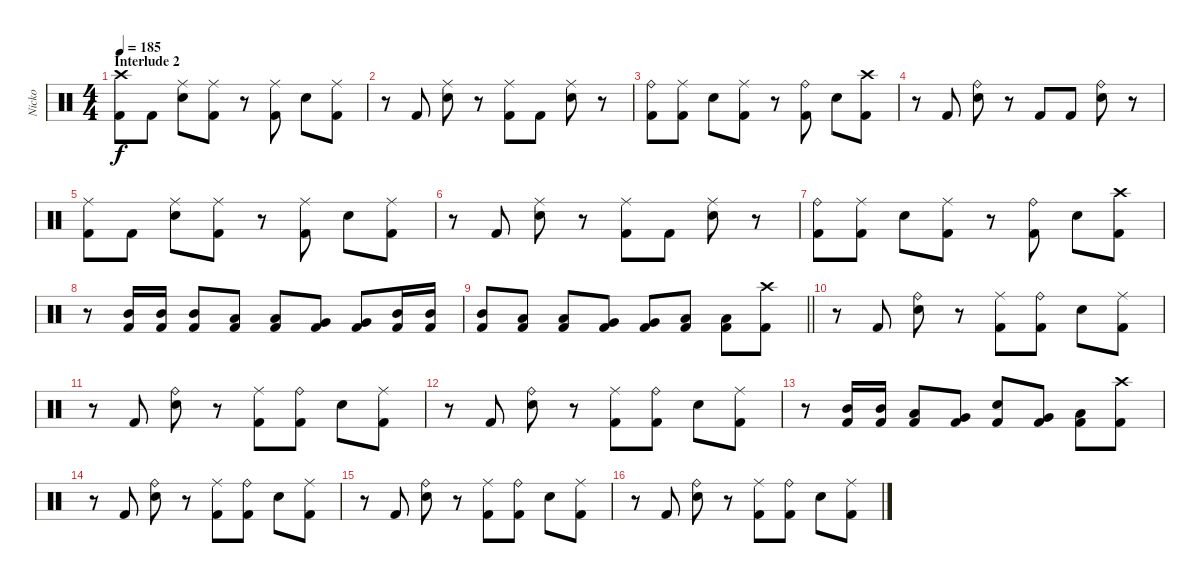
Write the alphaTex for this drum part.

\track ("Nicko" "Nicko") {instrument percussion}
\staff {score}
\articulation defaults
\ts (4 4)
\section ("" "Interlude 2")
\tempo 185
\clef neutral
\ks c
("Crash high (hit)" "Kick (hit) 2").8{dy f} "Kick (hit) 2".8 ("Ride (middle)" "Snare (hit) 2").8 ("Ride (middle)" "Kick (hit) 2").8 r.8 ("Ride (middle)" "Kick (hit) 2").8 "Snare (hit) 2".8 ("Ride (middle)" "Kick (hit) 2").8 |
r.8 "Kick (hit) 2".8 ("Ride (middle)" "Snare (hit) 2").8 r.8 ("Ride (middle)" "Kick (hit) 2").8 "Kick (hit) 2".8 ("Ride (middle)" "Snare (hit) 2").8 r.8 |
("Ride (bell)" "Kick (hit) 2").8 ("Ride (middle)" "Kick (hit) 2").8 "Snare (hit) 2".8 ("Ride (middle)" "Kick (hit) 2").8 r.8 ("Ride (bell)" "Kick (hit) 2").8 "Snare (hit) 2".8 ("Crash high (hit)" "Kick (hit) 2").8 |
r.8 "Kick (hit) 2".8 ("Ride (bell)" "Snare (hit) 2").8 r.8 "Kick (hit) 2".8 "Kick (hit) 2".8 ("Ride (bell)" "Snare (hit) 2").8 r.8 |
("Ride (middle)" "Kick (hit) 2").8 "Kick (hit) 2".8 ("Ride (middle)" "Snare (hit) 2").8 ("Ride (middle)" "Kick (hit) 2").8 r.8 ("Ride (middle)" "Kick (hit) 2").8 "Snare (hit) 2".8 ("Ride (middle)" "Kick (hit) 2").8 |
r.8 "Kick (hit) 2".8 ("Ride (middle)" "Snare (hit) 2").8 r.8 ("Ride (middle)" "Kick (hit) 2").8 "Kick (hit) 2".8 ("Ride (middle)" "Snare (hit) 2").8 r.8 |
("Ride (bell)" "Kick (hit) 2").8 ("Ride (middle)" "Kick (hit) 2").8 "Snare (hit) 2".8 ("Ride (middle)" "Kick (hit) 2").8 r.8 ("Ride (bell)" "Kick (hit) 2").8 "Snare (hit) 2".8 ("Crash high (hit)" "Kick (hit) 2").8 |
r.8 ("Mid Tom (hit)" "Kick (hit) 2").16 ("Mid Tom (hit)" "Kick (hit) 2").16 ("Mid Tom (hit)" "Kick (hit) 2").8 ("Low Tom (hit)" "Kick (hit) 2").8 ("Low Tom (hit)" "Kick (hit) 2").8 ("Very Low Tom (hit)" "Kick (hit) 2").8 ("Very Low Tom (hit)" "Kick (hit) 2").8 ("Mid Tom (hit)" "Kick (hit) 2").16 ("Mid Tom (hit)" "Kick (hit) 2").16 |
\barLineRight lightlight
("Mid Tom (hit)" "Kick (hit) 2").8 ("Low Tom (hit)" "Kick (hit) 2").8 ("Low Tom (hit)" "Kick (hit) 2").8 ("Very Low Tom (hit)" "Kick (hit) 2").8 ("Very Low Tom (hit)" "Kick (hit) 2").8 ("Low Floor Tom (hit)" "Kick (hit) 2").8 ("Low Floor Tom (hit)" "Kick (hit) 2").8 ("Crash high (hit)" "Kick (hit) 2").8 |
r.8 "Kick (hit) 2".8 ("Ride (bell)" "Snare (hit) 2").8 r.8 ("Ride (middle)" "Kick (hit) 2").8 ("Ride (bell)" "Kick (hit) 2").8 "Snare (hit) 2".8 ("Ride (middle)" "Kick (hit) 2").8 |
r.8 "Kick (hit) 2".8 ("Ride (bell)" "Snare (hit) 2").8 r.8 ("Ride (middle)" "Kick (hit) 2").8 ("Ride (bell)" "Kick (hit) 2").8 "Snare (hit) 2".8 ("Ride (middle)" "Kick (hit) 2").8 |
r.8 "Kick (hit) 2".8 ("Ride (bell)" "Snare (hit) 2").8 r.8 ("Ride (middle)" "Kick (hit) 2").8 ("Ride (bell)" "Kick (hit) 2").8 "Snare (hit) 2".8 ("Ride (middle)" "Kick (hit) 2").8 |
r.8 ("Mid Tom (hit)" "Kick (hit) 2").16 ("Mid Tom (hit)" "Kick (hit) 2").16 ("Low Tom (hit)" "Kick (hit) 2").8 ("Very Low Tom (hit)" "Kick (hit) 2").8 ("Snare (hit) 2" "Kick (hit) 2").8 ("Very Low Tom (hit)" "Kick (hit) 2").8 ("Low Floor Tom (hit)" "Kick (hit) 2").8 ("Crash high (hit)" "Kick (hit) 2").8 |
r.8 "Kick (hit) 2".8 ("Ride (bell)" "Snare (hit) 2").8 r.8 ("Ride (middle)" "Kick (hit) 2").8 ("Ride (bell)" "Kick (hit) 2").8 "Snare (hit) 2".8 ("Ride (middle)" "Kick (hit) 2").8 |
r.8 "Kick (hit) 2".8 ("Ride (bell)" "Snare (hit) 2").8 r.8 ("Ride (middle)" "Kick (hit) 2").8 ("Ride (bell)" "Kick (hit) 2").8 "Snare (hit) 2".8 ("Ride (middle)" "Kick (hit) 2").8 |
r.8 "Kick (hit) 2".8 ("Ride (bell)" "Snare (hit) 2").8 r.8 ("Ride (middle)" "Kick (hit) 2").8 ("Ride (bell)" "Kick (hit) 2").8 "Snare (hit) 2".8 ("Ride (middle)" "Kick (hit) 2").8
